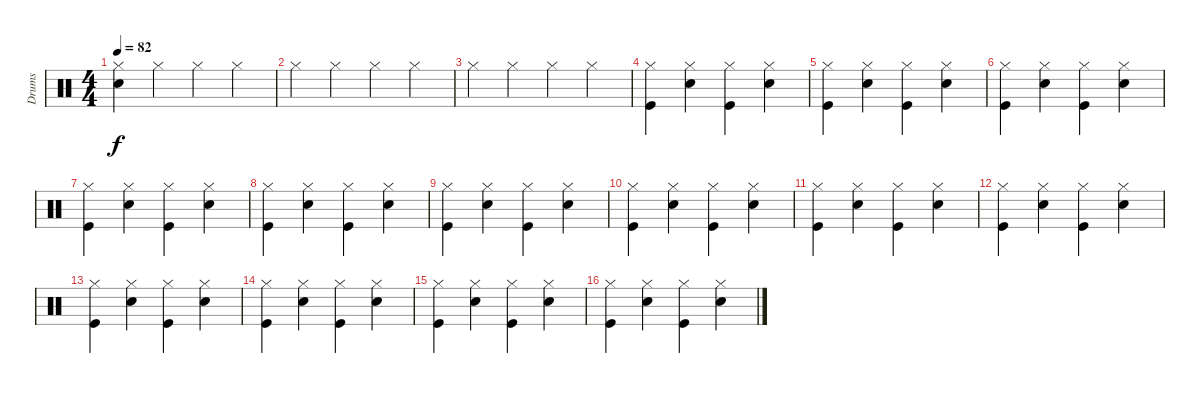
\track ("Drums" "Drums") {instrument percussion}
\staff {score}
\articulation defaults
\ts (4 4)
\tempo 82
\clef neutral
\ks c
("Electric Snare (hit)" "Hi-Hat (closed)").4{dy f} "Hi-Hat (closed)".4 "Hi-Hat (closed)".4 "Hi-Hat (closed)".4 |
"Hi-Hat (closed)".4 "Hi-Hat (closed)".4 "Hi-Hat (closed)".4 "Hi-Hat (closed)".4 |
"Hi-Hat (closed)".4 "Hi-Hat (closed)".4 "Hi-Hat (closed)".4 "Hi-Hat (closed)".4 |
("Hi-Hat (closed)" "Kick (hit)").4 ("Hi-Hat (closed)" "Snare (hit) 2").4 ("Hi-Hat (closed)" "Kick (hit)").4 ("Hi-Hat (closed)" "Snare (hit) 2").4 |
("Hi-Hat (closed)" "Kick (hit)").4 ("Hi-Hat (closed)" "Snare (hit) 2").4 ("Hi-Hat (closed)" "Kick (hit)").4 ("Hi-Hat (closed)" "Snare (hit) 2").4 |
("Hi-Hat (closed)" "Kick (hit)").4 ("Hi-Hat (closed)" "Snare (hit) 2").4 ("Hi-Hat (closed)" "Kick (hit)").4 ("Hi-Hat (closed)" "Snare (hit) 2").4 |
("Hi-Hat (closed)" "Kick (hit)").4 ("Hi-Hat (closed)" "Snare (hit) 2").4 ("Hi-Hat (closed)" "Kick (hit)").4 ("Hi-Hat (closed)" "Snare (hit) 2").4 |
("Hi-Hat (closed)" "Kick (hit)").4 ("Hi-Hat (closed)" "Snare (hit) 2").4 ("Hi-Hat (closed)" "Kick (hit)").4 ("Hi-Hat (closed)" "Snare (hit) 2").4 |
("Hi-Hat (closed)" "Kick (hit)").4 ("Hi-Hat (closed)" "Snare (hit) 2").4 ("Hi-Hat (closed)" "Kick (hit)").4 ("Hi-Hat (closed)" "Snare (hit) 2").4 |
("Hi-Hat (closed)" "Kick (hit)").4 ("Hi-Hat (closed)" "Snare (hit) 2").4 ("Hi-Hat (closed)" "Kick (hit)").4 ("Hi-Hat (closed)" "Snare (hit) 2").4 |
("Hi-Hat (closed)" "Kick (hit)").4 ("Hi-Hat (closed)" "Snare (hit) 2").4 ("Hi-Hat (closed)" "Kick (hit)").4 ("Hi-Hat (closed)" "Snare (hit) 2").4 |
("Hi-Hat (closed)" "Kick (hit)").4 ("Hi-Hat (closed)" "Snare (hit) 2").4 ("Hi-Hat (closed)" "Kick (hit)").4 ("Hi-Hat (closed)" "Snare (hit) 2").4 |
("Hi-Hat (closed)" "Kick (hit)").4 ("Hi-Hat (closed)" "Snare (hit) 2").4 ("Hi-Hat (closed)" "Kick (hit)").4 ("Hi-Hat (closed)" "Snare (hit) 2").4 |
("Hi-Hat (closed)" "Kick (hit)").4 ("Hi-Hat (closed)" "Snare (hit) 2").4 ("Hi-Hat (closed)" "Kick (hit)").4 ("Hi-Hat (closed)" "Snare (hit) 2").4 |
("Hi-Hat (closed)" "Kick (hit)").4 ("Hi-Hat (closed)" "Snare (hit) 2").4 ("Hi-Hat (closed)" "Kick (hit)").4 ("Hi-Hat (closed)" "Snare (hit) 2").4 |
("Hi-Hat (closed)" "Kick (hit)").4 ("Hi-Hat (closed)" "Snare (hit) 2").4 ("Hi-Hat (closed)" "Kick (hit)").4 ("Hi-Hat (closed)" "Snare (hit) 2").4
